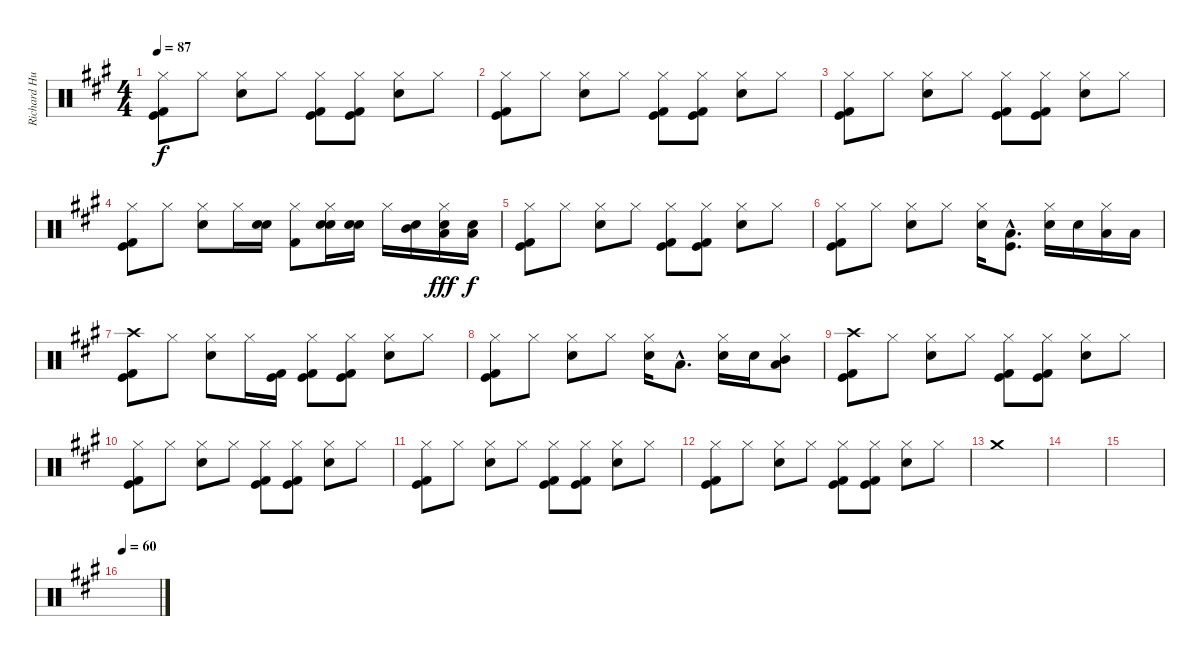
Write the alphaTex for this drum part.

\track ("Richard Hughes (Drums)" "Richard Hu") {instrument percussion}
\staff {score}
\articulation defaults
\ts (4 4)
\tempo 87
\clef neutral
\ks a
("Hi-Hat (closed)" "Kick (hit) 2" "Kick (hit)").8{dy f} "Hi-Hat (closed)".8 ("Hi-Hat (closed)" "Snare (hit) 2").8 "Hi-Hat (closed)".8 ("Hi-Hat (closed)" "Kick (hit) 2" "Kick (hit)").8 ("Hi-Hat (closed)" "Kick (hit) 2" "Kick (hit)").8 ("Hi-Hat (closed)" "Snare (hit) 2").8 "Hi-Hat (closed)".8 |
("Hi-Hat (closed)" "Kick (hit) 2" "Kick (hit)").8 "Hi-Hat (closed)".8 ("Hi-Hat (closed)" "Snare (hit) 2").8 "Hi-Hat (closed)".8 ("Hi-Hat (closed)" "Kick (hit) 2" "Kick (hit)").8 ("Hi-Hat (closed)" "Kick (hit) 2" "Kick (hit)").8 ("Hi-Hat (closed)" "Snare (hit) 2").8 "Hi-Hat (closed)".8 |
("Hi-Hat (closed)" "Kick (hit) 2" "Kick (hit)").8 "Hi-Hat (closed)".8 ("Hi-Hat (closed)" "Snare (hit) 2").8 "Hi-Hat (closed)".8 ("Hi-Hat (closed)" "Kick (hit) 2" "Kick (hit)").8 ("Hi-Hat (closed)" "Kick (hit) 2" "Kick (hit)").8 ("Hi-Hat (closed)" "Snare (hit) 2").8 "Hi-Hat (closed)".8 |
("Hi-Hat (closed)" "Kick (hit) 2" "Kick (hit)").8 "Hi-Hat (closed)".8 ("Hi-Hat (closed)" "Snare (hit) 2").8 "Hi-Hat (closed)".16 ("Snare (hit) 2" "Electric Snare (hit)").16 ("Hi-Hat (closed)" "Kick (hit) 2").8 ("Hi-Hat (closed)" "Snare (hit) 2" "Electric Snare (hit)").16 ("Snare (hit) 2" "Electric Snare (hit)").16 "Hi-Hat (closed)".16 ("Electric Snare (hit)" "Mid Tom (hit)").16 ("Hi-Hat (closed)" "Electric Snare (hit)" "Low Tom (hit)").16{dy fff} ("Electric Snare (hit)" "Low Tom (hit)").16{dy f} |
("Hi-Hat (closed)" "Kick (hit) 2" "Kick (hit)").8 "Hi-Hat (closed)".8 ("Hi-Hat (closed)" "Snare (hit) 2").8 "Hi-Hat (closed)".8 ("Hi-Hat (closed)" "Kick (hit) 2" "Kick (hit)").8 ("Hi-Hat (closed)" "Kick (hit) 2" "Kick (hit)").8 ("Hi-Hat (closed)" "Snare (hit) 2").8 "Hi-Hat (closed)".8 |
("Hi-Hat (closed)" "Kick (hit) 2" "Kick (hit)").8 "Hi-Hat (closed)".8 ("Hi-Hat (closed)" "Snare (hit) 2").8 "Hi-Hat (closed)".8 ("Hi-Hat (closed)" "Snare (hit) 2").16 ("Low Tom (hit)"{hac} "Kick (hit)"{hac}).8{d} ("Hi-Hat (closed)" "Snare (hit) 2").16 "Snare (hit) 2".16 ("Hi-Hat (closed)" "Low Tom (hit)").16 "Low Tom (hit)".16 |
("Crash high (hit)" "Kick (hit) 2" "Kick (hit)").8 "Hi-Hat (closed)".8 ("Hi-Hat (closed)" "Snare (hit) 2").8 "Hi-Hat (closed)".16 ("Kick (hit) 2" "Kick (hit)").16 ("Hi-Hat (closed)" "Kick (hit) 2" "Kick (hit)").8 ("Hi-Hat (closed)" "Kick (hit) 2" "Kick (hit)").8 ("Hi-Hat (closed)" "Snare (hit) 2").8 "Hi-Hat (closed)".8 |
("Hi-Hat (closed)" "Kick (hit) 2" "Kick (hit)").8 "Hi-Hat (closed)".8 ("Hi-Hat (closed)" "Snare (hit) 2").8 "Hi-Hat (closed)".8 ("Hi-Hat (closed)" "Snare (hit) 2").16 "Low Tom (hit)"{hac}.8{d} ("Hi-Hat (closed)" "Snare (hit) 2").16 "Snare (hit) 2".16 ("Hi-Hat (closed)" "Low Tom (hit)" "Mid Tom (hit)").8 |
("Crash high (hit)" "Kick (hit) 2" "Kick (hit)").8 "Hi-Hat (closed)".8 ("Hi-Hat (closed)" "Snare (hit) 2").8 "Hi-Hat (closed)".8 ("Hi-Hat (closed)" "Kick (hit) 2" "Kick (hit)").8 ("Hi-Hat (closed)" "Kick (hit) 2" "Kick (hit)").8 ("Hi-Hat (closed)" "Snare (hit) 2").8 "Hi-Hat (closed)".8 |
("Hi-Hat (closed)" "Kick (hit) 2" "Kick (hit)").8 "Hi-Hat (closed)".8 ("Hi-Hat (closed)" "Snare (hit) 2").8 "Hi-Hat (closed)".8 ("Hi-Hat (closed)" "Kick (hit) 2" "Kick (hit)").8 ("Hi-Hat (closed)" "Kick (hit) 2" "Kick (hit)").8 ("Hi-Hat (closed)" "Snare (hit) 2").8 "Hi-Hat (closed)".8 |
("Hi-Hat (closed)" "Kick (hit) 2" "Kick (hit)").8 "Hi-Hat (closed)".8 ("Hi-Hat (closed)" "Snare (hit) 2").8 "Hi-Hat (closed)".8 ("Hi-Hat (closed)" "Kick (hit) 2" "Kick (hit)").8 ("Hi-Hat (closed)" "Kick (hit) 2" "Kick (hit)").8 ("Hi-Hat (closed)" "Snare (hit) 2").8 "Hi-Hat (closed)".8 |
("Hi-Hat (closed)" "Kick (hit) 2" "Kick (hit)").8 "Hi-Hat (closed)".8 ("Hi-Hat (closed)" "Snare (hit) 2").8 "Hi-Hat (closed)".8 ("Hi-Hat (closed)" "Kick (hit) 2" "Kick (hit)").8 ("Hi-Hat (closed)" "Kick (hit) 2" "Kick (hit)").8 ("Hi-Hat (closed)" "Snare (hit) 2").8 "Hi-Hat (closed)".8 |
"Crash medium (hit)".1 |
|
|
\tempo 60
